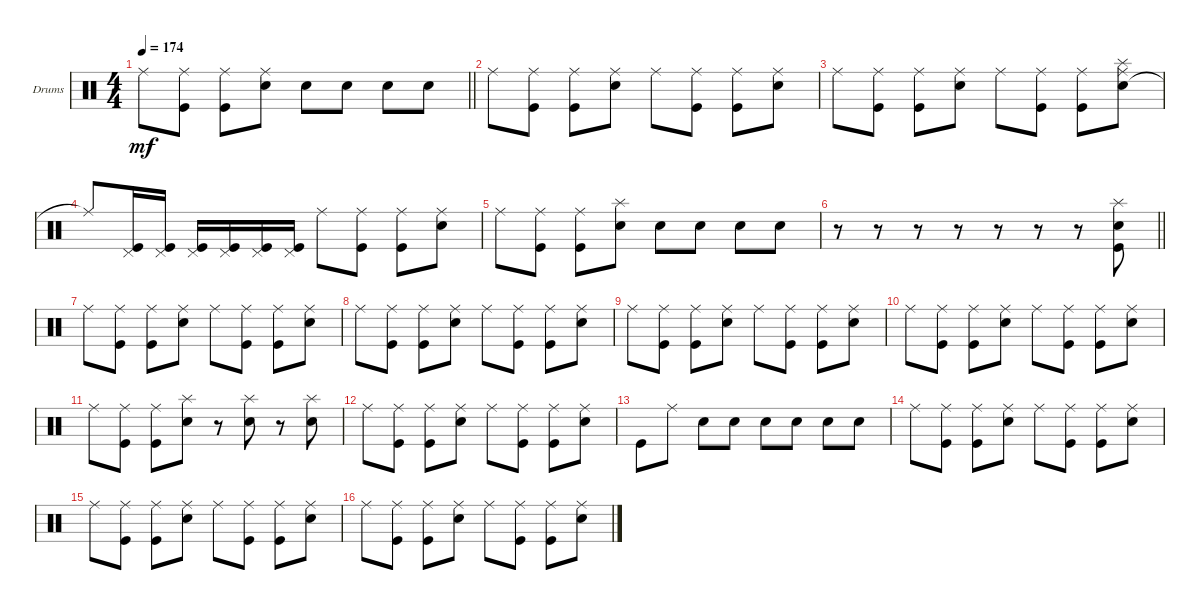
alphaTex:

\bracketExtendMode groupsimilarinstruments
\firstSystemTrackNameOrientation horizontal
\otherSystemsTrackNameOrientation horizontal
\track ("Drumkit" "Drums") {instrument percussion}
\staff {score}
\articulation defaults
\ts (4 4)
\tempo 174
\clef neutral
\scale
0.333333
\barLineRight lightlight
\ks c "Ride (middle)".8{dy mf}
("Kick (hit)" "Ride (middle)").8 ("Kick (hit)" "Ride (middle)").8 ("Snare (hit) 2" "Ride (middle)").8 "Snare (hit) 2".8 "Snare (hit) 2".8 "Snare (hit) 2".8 "Snare (hit) 2".8 |
\scale
0.333333 "Ride (middle)".8 ("Kick (hit)" "Ride (middle)").8 ("Kick (hit)" "Ride (middle)").8 ("Snare (hit) 2" "Ride (middle)").8 "Ride (middle)".8 ("Ride (middle)" "Kick (hit)").8 ("Kick (hit)" "Ride (middle)").8 ("Snare (hit) 2" "Ride (middle)").8 |
\scale
0.333333 "Ride (middle)".8 ("Kick (hit)" "Ride (middle)").8 ("Kick (hit)" "Ride (middle)").8 ("Snare (hit) 2" "Ride (middle)").8 "Ride (middle)".8 ("Ride (middle)" "Kick (hit)").8 ("Kick (hit)" "Ride (middle)").8 ("Snare (hit) 2" "Ride (middle)" "Splash (hit)").8 |
\scale
0.333333 "Ride (middle)"{t}.8 ("Kick (hit)" "Pedal Hi-Hat (hit)").16 ("Kick (hit)" "Pedal Hi-Hat (hit)").16 ("Kick (hit)" "Pedal Hi-Hat (hit)").16 ("Kick (hit)" "Pedal Hi-Hat (hit)").16 ("Kick (hit)" "Pedal Hi-Hat (hit)").16 ("Kick (hit)" "Pedal Hi-Hat (hit)").16 "Ride (middle)".8 ("Kick (hit)" "Ride (middle)").8 ("Kick (hit)" "Ride (middle)").8 ("Snare (hit) 2" "Ride (middle)").8 |
\scale
0.333333 "Ride (middle)".8 ("Kick (hit)" "Ride (middle)").8 ("Kick (hit)" "Ride (middle)").8 ("Snare (hit) 2" "Splash (hit)").8 "Snare (hit) 2".8 "Snare (hit) 2".8 "Snare (hit) 2".8 "Snare (hit) 2".8 |
\scale
0.333333
\barLineRight lightlight
r.8 r.8 r.8 r.8 r.8 r.8 r.8 ("Splash (hit)" "Snare (hit) 2" "Kick (hit)").8 |
\scale
0.333333 "Ride (middle)".8 ("Kick (hit)" "Ride (middle)").8 ("Kick (hit)" "Ride (middle)").8 ("Snare (hit) 2" "Ride (middle)").8 "Ride (middle)".8 ("Ride (middle)" "Kick (hit)").8 ("Kick (hit)" "Ride (middle)").8 ("Snare (hit) 2" "Ride (middle)").8 |
\scale
0.333333 "Ride (middle)".8 ("Kick (hit)" "Ride (middle)").8 ("Kick (hit)" "Ride (middle)").8 ("Snare (hit) 2" "Ride (middle)").8 "Ride (middle)".8 ("Ride (middle)" "Kick (hit)").8 ("Kick (hit)" "Ride (middle)").8 ("Snare (hit) 2" "Ride (middle)").8 |
\scale
0.333333 "Ride (middle)".8 ("Kick (hit)" "Ride (middle)").8 ("Kick (hit)" "Ride (middle)").8 ("Snare (hit) 2" "Ride (middle)").8 "Ride (middle)".8 ("Ride (middle)" "Kick (hit)").8 ("Kick (hit)" "Ride (middle)").8 ("Snare (hit) 2" "Ride (middle)").8 |
\scale
0.333333 "Ride (middle)".8 ("Kick (hit)" "Ride (middle)").8 ("Kick (hit)" "Ride (middle)").8 ("Snare (hit) 2" "Ride (middle)").8 "Ride (middle)".8 ("Ride (middle)" "Kick (hit)").8 ("Kick (hit)" "Ride (middle)").8 ("Snare (hit) 2" "Ride (middle)").8 |
\scale
0.333333 "Ride (middle)".8 ("Kick (hit)" "Ride (middle)").8 ("Kick (hit)" "Ride (middle)").8 ("Snare (hit) 2" "Splash (hit)").8 r.8 ("Snare (hit) 2" "Splash (hit)").8 r.8 ("Splash (hit)" "Snare (hit) 2").8 |
\scale
0.333333 "Ride (middle)".8 ("Kick (hit)" "Ride (middle)").8 ("Kick (hit)" "Ride (middle)").8 ("Snare (hit) 2" "Ride (middle)").8 "Ride (middle)".8 ("Ride (middle)" "Kick (hit)").8 ("Kick (hit)" "Ride (middle)").8 ("Snare (hit) 2" "Ride (middle)").8 |
\scale
0.333333 "Kick (hit)".8 "Ride (middle)".8 "Snare (hit) 2".8 "Snare (hit) 2".8 "Snare (hit) 2".8 "Snare (hit) 2".8 "Snare (hit) 2".8 "Snare (hit) 2".8 |
\scale
0.333333 "Ride (middle)".8 ("Kick (hit)" "Ride (middle)").8 ("Kick (hit)" "Ride (middle)").8 ("Snare (hit) 2" "Ride (middle)").8 "Ride (middle)".8 ("Ride (middle)" "Kick (hit)").8 ("Kick (hit)" "Ride (middle)").8 ("Snare (hit) 2" "Ride (middle)").8 |
\scale
0.333333 "Ride (middle)".8 ("Kick (hit)" "Ride (middle)").8 ("Kick (hit)" "Ride (middle)").8 ("Snare (hit) 2" "Ride (middle)").8 "Ride (middle)".8 ("Ride (middle)" "Kick (hit)").8 ("Kick (hit)" "Ride (middle)").8 ("Snare (hit) 2" "Ride (middle)").8 |
\scale
0.333333 "Ride (middle)".8 ("Kick (hit)" "Ride (middle)").8 ("Kick (hit)" "Ride (middle)").8 ("Snare (hit) 2" "Ride (middle)").8 "Ride (middle)".8 ("Ride (middle)" "Kick (hit)").8 ("Kick (hit)" "Ride (middle)").8 ("Snare (hit) 2" "Ride (middle)").8
